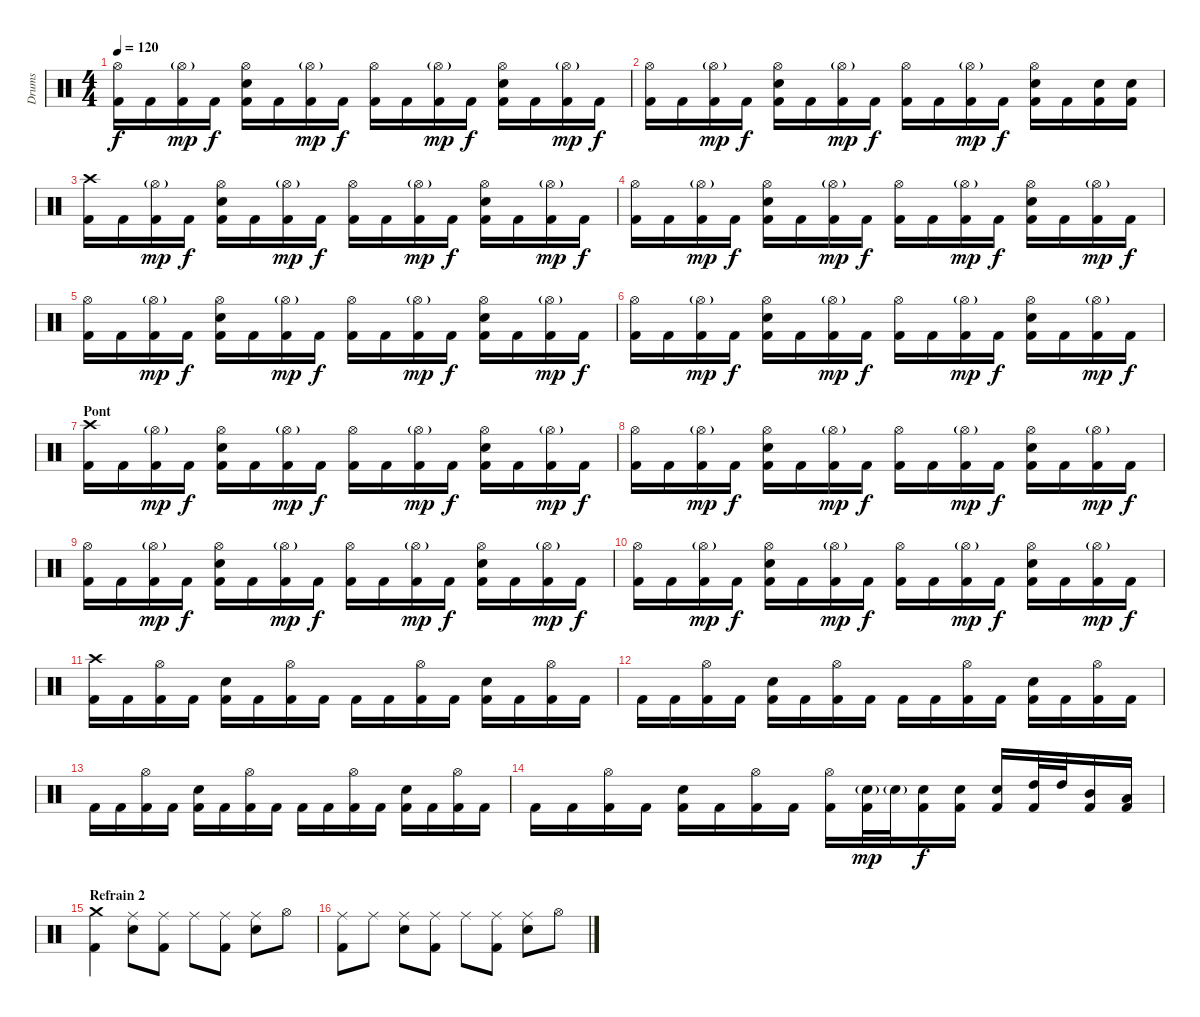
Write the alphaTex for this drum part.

\track ("Drums" "Drums") {instrument percussion}
\staff {score}
\articulation defaults
\ts (4 4)
\tempo 120
\clef neutral
\ks c
("Hi-Hat (open)" "Kick (hit) 2").16{dy f} "Kick (hit) 2".16 ("Hi-Hat (open)"{g} "Kick (hit) 2").16{dy mp} "Kick (hit) 2".16{dy f} ("Hi-Hat (open)" "Snare (hit) 2" "Kick (hit) 2").16 "Kick (hit) 2".16 ("Hi-Hat (open)"{g} "Kick (hit) 2").16{dy mp} "Kick (hit) 2".16{dy f} ("Hi-Hat (open)" "Kick (hit) 2").16 "Kick (hit) 2".16 ("Hi-Hat (open)"{g} "Kick (hit) 2").16{dy mp} "Kick (hit) 2".16{dy f} ("Hi-Hat (open)" "Snare (hit) 2" "Kick (hit) 2").16 "Kick (hit) 2".16 ("Hi-Hat (open)"{g} "Kick (hit) 2").16{dy mp} "Kick (hit) 2".16{dy f} |
("Hi-Hat (open)" "Kick (hit) 2").16 "Kick (hit) 2".16 ("Hi-Hat (open)"{g} "Kick (hit) 2").16{dy mp} "Kick (hit) 2".16{dy f} ("Hi-Hat (open)" "Snare (hit) 2" "Kick (hit) 2").16 "Kick (hit) 2".16 ("Hi-Hat (open)"{g} "Kick (hit) 2").16{dy mp} "Kick (hit) 2".16{dy f} ("Hi-Hat (open)" "Kick (hit) 2").16 "Kick (hit) 2".16 ("Hi-Hat (open)"{g} "Kick (hit) 2").16{dy mp} "Kick (hit) 2".16{dy f} ("Hi-Hat (open)" "Snare (hit) 2" "Kick (hit) 2").16 "Kick (hit) 2".16 ("Snare (hit) 2" "Kick (hit) 2").16 ("Snare (hit) 2" "Kick (hit) 2").16 |
("Crash high (hit)" "Kick (hit) 2").16 "Kick (hit) 2".16 ("Hi-Hat (open)"{g} "Kick (hit) 2").16{dy mp} "Kick (hit) 2".16{dy f} ("Hi-Hat (open)" "Snare (hit) 2" "Kick (hit) 2").16 "Kick (hit) 2".16 ("Hi-Hat (open)"{g} "Kick (hit) 2").16{dy mp} "Kick (hit) 2".16{dy f} ("Hi-Hat (open)" "Kick (hit) 2").16 "Kick (hit) 2".16 ("Hi-Hat (open)"{g} "Kick (hit) 2").16{dy mp} "Kick (hit) 2".16{dy f} ("Hi-Hat (open)" "Snare (hit) 2" "Kick (hit) 2").16 "Kick (hit) 2".16 ("Hi-Hat (open)"{g} "Kick (hit) 2").16{dy mp} "Kick (hit) 2".16{dy f} |
("Hi-Hat (open)" "Kick (hit) 2").16 "Kick (hit) 2".16 ("Hi-Hat (open)"{g} "Kick (hit) 2").16{dy mp} "Kick (hit) 2".16{dy f} ("Hi-Hat (open)" "Snare (hit) 2" "Kick (hit) 2").16 "Kick (hit) 2".16 ("Hi-Hat (open)"{g} "Kick (hit) 2").16{dy mp} "Kick (hit) 2".16{dy f} ("Hi-Hat (open)" "Kick (hit) 2").16 "Kick (hit) 2".16 ("Hi-Hat (open)"{g} "Kick (hit) 2").16{dy mp} "Kick (hit) 2".16{dy f} ("Hi-Hat (open)" "Snare (hit) 2" "Kick (hit) 2").16 "Kick (hit) 2".16 ("Hi-Hat (open)"{g} "Kick (hit) 2").16{dy mp} "Kick (hit) 2".16{dy f} |
("Hi-Hat (open)" "Kick (hit) 2").16 "Kick (hit) 2".16 ("Hi-Hat (open)"{g} "Kick (hit) 2").16{dy mp} "Kick (hit) 2".16{dy f} ("Hi-Hat (open)" "Snare (hit) 2" "Kick (hit) 2").16 "Kick (hit) 2".16 ("Hi-Hat (open)"{g} "Kick (hit) 2").16{dy mp} "Kick (hit) 2".16{dy f} ("Hi-Hat (open)" "Kick (hit) 2").16 "Kick (hit) 2".16 ("Hi-Hat (open)"{g} "Kick (hit) 2").16{dy mp} "Kick (hit) 2".16{dy f} ("Hi-Hat (open)" "Snare (hit) 2" "Kick (hit) 2").16 "Kick (hit) 2".16 ("Hi-Hat (open)"{g} "Kick (hit) 2").16{dy mp} "Kick (hit) 2".16{dy f} |
("Hi-Hat (open)" "Kick (hit) 2").16 "Kick (hit) 2".16 ("Hi-Hat (open)"{g} "Kick (hit) 2").16{dy mp} "Kick (hit) 2".16{dy f} ("Hi-Hat (open)" "Snare (hit) 2" "Kick (hit) 2").16 "Kick (hit) 2".16 ("Hi-Hat (open)"{g} "Kick (hit) 2").16{dy mp} "Kick (hit) 2".16{dy f} ("Hi-Hat (open)" "Kick (hit) 2").16 "Kick (hit) 2".16 ("Hi-Hat (open)"{g} "Kick (hit) 2").16{dy mp} "Kick (hit) 2".16{dy f} ("Hi-Hat (open)" "Snare (hit) 2" "Kick (hit) 2").16 "Kick (hit) 2".16 ("Hi-Hat (open)"{g} "Kick (hit) 2").16{dy mp} "Kick (hit) 2".16{dy f} |
\section ("" "Pont")
("Crash high (hit)" "Kick (hit) 2").16 "Kick (hit) 2".16 ("Hi-Hat (open)"{g} "Kick (hit) 2").16{dy mp} "Kick (hit) 2".16{dy f} ("Hi-Hat (open)" "Snare (hit) 2" "Kick (hit) 2").16 "Kick (hit) 2".16 ("Hi-Hat (open)"{g} "Kick (hit) 2").16{dy mp} "Kick (hit) 2".16{dy f} ("Hi-Hat (open)" "Kick (hit) 2").16 "Kick (hit) 2".16 ("Hi-Hat (open)"{g} "Kick (hit) 2").16{dy mp} "Kick (hit) 2".16{dy f} ("Hi-Hat (open)" "Snare (hit) 2" "Kick (hit) 2").16 "Kick (hit) 2".16 ("Hi-Hat (open)"{g} "Kick (hit) 2").16{dy mp} "Kick (hit) 2".16{dy f} |
("Hi-Hat (open)" "Kick (hit) 2").16 "Kick (hit) 2".16 ("Hi-Hat (open)"{g} "Kick (hit) 2").16{dy mp} "Kick (hit) 2".16{dy f} ("Hi-Hat (open)" "Snare (hit) 2" "Kick (hit) 2").16 "Kick (hit) 2".16 ("Hi-Hat (open)"{g} "Kick (hit) 2").16{dy mp} "Kick (hit) 2".16{dy f} ("Hi-Hat (open)" "Kick (hit) 2").16 "Kick (hit) 2".16 ("Hi-Hat (open)"{g} "Kick (hit) 2").16{dy mp} "Kick (hit) 2".16{dy f} ("Hi-Hat (open)" "Snare (hit) 2" "Kick (hit) 2").16 "Kick (hit) 2".16 ("Hi-Hat (open)"{g} "Kick (hit) 2").16{dy mp} "Kick (hit) 2".16{dy f} |
("Hi-Hat (open)" "Kick (hit) 2").16 "Kick (hit) 2".16 ("Hi-Hat (open)"{g} "Kick (hit) 2").16{dy mp} "Kick (hit) 2".16{dy f} ("Hi-Hat (open)" "Snare (hit) 2" "Kick (hit) 2").16 "Kick (hit) 2".16 ("Hi-Hat (open)"{g} "Kick (hit) 2").16{dy mp} "Kick (hit) 2".16{dy f} ("Hi-Hat (open)" "Kick (hit) 2").16 "Kick (hit) 2".16 ("Hi-Hat (open)"{g} "Kick (hit) 2").16{dy mp} "Kick (hit) 2".16{dy f} ("Hi-Hat (open)" "Snare (hit) 2" "Kick (hit) 2").16 "Kick (hit) 2".16 ("Hi-Hat (open)"{g} "Kick (hit) 2").16{dy mp} "Kick (hit) 2".16{dy f} |
("Hi-Hat (open)" "Kick (hit) 2").16 "Kick (hit) 2".16 ("Hi-Hat (open)"{g} "Kick (hit) 2").16{dy mp} "Kick (hit) 2".16{dy f} ("Hi-Hat (open)" "Snare (hit) 2" "Kick (hit) 2").16 "Kick (hit) 2".16 ("Hi-Hat (open)"{g} "Kick (hit) 2").16{dy mp} "Kick (hit) 2".16{dy f} ("Hi-Hat (open)" "Kick (hit) 2").16 "Kick (hit) 2".16 ("Hi-Hat (open)"{g} "Kick (hit) 2").16{dy mp} "Kick (hit) 2".16{dy f} ("Hi-Hat (open)" "Snare (hit) 2" "Kick (hit) 2").16 "Kick (hit) 2".16 ("Hi-Hat (open)"{g} "Kick (hit) 2").16{dy mp} "Kick (hit) 2".16{dy f} |
("Crash high (hit)" "Kick (hit) 2").16 "Kick (hit) 2".16 ("Hi-Hat (open)" "Kick (hit) 2").16 "Kick (hit) 2".16 ("Snare (hit) 2" "Kick (hit) 2").16 "Kick (hit) 2".16 ("Hi-Hat (open)" "Kick (hit) 2").16 "Kick (hit) 2".16 "Kick (hit) 2".16 "Kick (hit) 2".16 ("Hi-Hat (open)" "Kick (hit) 2").16 "Kick (hit) 2".16 ("Snare (hit) 2" "Kick (hit) 2").16 "Kick (hit) 2".16 ("Hi-Hat (open)" "Kick (hit) 2").16 "Kick (hit) 2".16 |
"Kick (hit) 2".16 "Kick (hit) 2".16 ("Hi-Hat (open)" "Kick (hit) 2").16 "Kick (hit) 2".16 ("Snare (hit) 2" "Kick (hit) 2").16 "Kick (hit) 2".16 ("Hi-Hat (open)" "Kick (hit) 2").16 "Kick (hit) 2".16 "Kick (hit) 2".16 "Kick (hit) 2".16 ("Hi-Hat (open)" "Kick (hit) 2").16 "Kick (hit) 2".16 ("Snare (hit) 2" "Kick (hit) 2").16 "Kick (hit) 2".16 ("Hi-Hat (open)" "Kick (hit) 2").16 "Kick (hit) 2".16 |
"Kick (hit) 2".16 "Kick (hit) 2".16 ("Hi-Hat (open)" "Kick (hit) 2").16 "Kick (hit) 2".16 ("Snare (hit) 2" "Kick (hit) 2").16 "Kick (hit) 2".16 ("Hi-Hat (open)" "Kick (hit) 2").16 "Kick (hit) 2".16 "Kick (hit) 2".16 "Kick (hit) 2".16 ("Hi-Hat (open)" "Kick (hit) 2").16 "Kick (hit) 2".16 ("Snare (hit) 2" "Kick (hit) 2").16 "Kick (hit) 2".16 ("Hi-Hat (open)" "Kick (hit) 2").16 "Kick (hit) 2".16 |
"Kick (hit) 2".16 "Kick (hit) 2".16 ("Hi-Hat (open)" "Kick (hit) 2").16 "Kick (hit) 2".16 ("Snare (hit) 2" "Kick (hit) 2").16 "Kick (hit) 2".16 ("Hi-Hat (open)" "Kick (hit) 2").16 "Kick (hit) 2".16 ("Hi-Hat (open)" "Kick (hit) 2").16 ("Snare (hit) 2"{g} "Kick (hit) 2").32{dy mp} "Snare (hit) 2"{g}.32 ("Snare (hit) 2" "Kick (hit) 2").16{dy f} ("Snare (hit) 2" "Kick (hit) 2").16 ("Snare (hit) 2" "Kick (hit) 2").16 ("High Tom (hit)" "Kick (hit) 2").32 "High Tom (hit)".32 ("Mid Tom (hit)" "Kick (hit) 2").16 ("Low Tom (hit)" "Kick (hit) 2").16 |
\section ("" "Refrain 2")
("Crash medium (hit)" "Kick (hit) 2").4 ("Ride (middle)" "Snare (hit) 2").8 ("Ride (middle)" "Kick (hit) 2").8 "Ride (middle)".8 ("Ride (middle)" "Kick (hit) 2").8 ("Ride (middle)" "Snare (hit) 2").8 "Hi-Hat (open)".8 |
("Ride (middle)" "Kick (hit) 2").8 "Ride (middle)".8 ("Ride (middle)" "Snare (hit) 2").8 ("Ride (middle)" "Kick (hit) 2").8 "Ride (middle)".8 ("Ride (middle)" "Kick (hit) 2").8 ("Ride (middle)" "Snare (hit) 2").8 "Hi-Hat (open)".8
